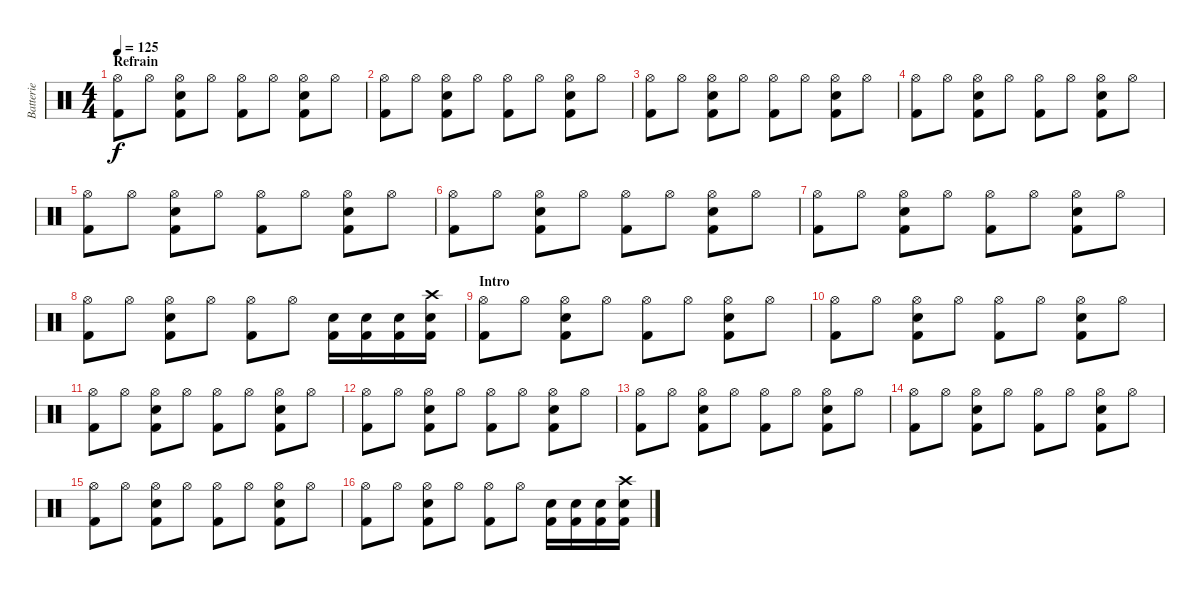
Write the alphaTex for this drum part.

\track ("Batterie" "Batterie") {instrument percussion}
\staff {score}
\articulation defaults
\ts (4 4)
\section ("" "Refrain")
\tempo 125
\clef neutral
\ks c
("Hi-Hat (open)" "Kick (hit) 2").8{dy f} "Hi-Hat (open)".8 ("Hi-Hat (open)" "Snare (hit) 2" "Kick (hit) 2").8 "Hi-Hat (open)".8 ("Hi-Hat (open)" "Kick (hit) 2").8 "Hi-Hat (open)".8 ("Hi-Hat (open)" "Snare (hit) 2" "Kick (hit) 2").8 "Hi-Hat (open)".8 |
("Hi-Hat (open)" "Kick (hit) 2").8 "Hi-Hat (open)".8 ("Hi-Hat (open)" "Snare (hit) 2" "Kick (hit) 2").8 "Hi-Hat (open)".8 ("Hi-Hat (open)" "Kick (hit) 2").8 "Hi-Hat (open)".8 ("Hi-Hat (open)" "Snare (hit) 2" "Kick (hit) 2").8 "Hi-Hat (open)".8 |
("Hi-Hat (open)" "Kick (hit) 2").8 "Hi-Hat (open)".8 ("Hi-Hat (open)" "Snare (hit) 2" "Kick (hit) 2").8 "Hi-Hat (open)".8 ("Hi-Hat (open)" "Kick (hit) 2").8 "Hi-Hat (open)".8 ("Hi-Hat (open)" "Snare (hit) 2" "Kick (hit) 2").8 "Hi-Hat (open)".8 |
("Hi-Hat (open)" "Kick (hit) 2").8 "Hi-Hat (open)".8 ("Hi-Hat (open)" "Snare (hit) 2" "Kick (hit) 2").8 "Hi-Hat (open)".8 ("Hi-Hat (open)" "Kick (hit) 2").8 "Hi-Hat (open)".8 ("Hi-Hat (open)" "Snare (hit) 2" "Kick (hit) 2").8 "Hi-Hat (open)".8 |
("Hi-Hat (open)" "Kick (hit) 2").8 "Hi-Hat (open)".8 ("Hi-Hat (open)" "Snare (hit) 2" "Kick (hit) 2").8 "Hi-Hat (open)".8 ("Hi-Hat (open)" "Kick (hit) 2").8 "Hi-Hat (open)".8 ("Hi-Hat (open)" "Snare (hit) 2" "Kick (hit) 2").8 "Hi-Hat (open)".8 |
("Hi-Hat (open)" "Kick (hit) 2").8 "Hi-Hat (open)".8 ("Hi-Hat (open)" "Snare (hit) 2" "Kick (hit) 2").8 "Hi-Hat (open)".8 ("Hi-Hat (open)" "Kick (hit) 2").8 "Hi-Hat (open)".8 ("Hi-Hat (open)" "Snare (hit) 2" "Kick (hit) 2").8 "Hi-Hat (open)".8 |
("Hi-Hat (open)" "Kick (hit) 2").8 "Hi-Hat (open)".8 ("Hi-Hat (open)" "Snare (hit) 2" "Kick (hit) 2").8 "Hi-Hat (open)".8 ("Hi-Hat (open)" "Kick (hit) 2").8 "Hi-Hat (open)".8 ("Hi-Hat (open)" "Snare (hit) 2" "Kick (hit) 2").8 "Hi-Hat (open)".8 |
("Hi-Hat (open)" "Kick (hit) 2").8 "Hi-Hat (open)".8 ("Hi-Hat (open)" "Snare (hit) 2" "Kick (hit) 2").8 "Hi-Hat (open)".8 ("Hi-Hat (open)" "Kick (hit) 2").8 "Hi-Hat (open)".8 ("Snare (hit) 2" "Kick (hit) 2").16 ("Snare (hit) 2" "Kick (hit) 2").16 ("Snare (hit) 2" "Kick (hit) 2").16 ("Crash high (hit)" "Snare (hit) 2" "Kick (hit) 2").16 |
\section ("" "Intro")
("Hi-Hat (open)" "Kick (hit) 2").8 "Hi-Hat (open)".8 ("Hi-Hat (open)" "Snare (hit) 2" "Kick (hit) 2").8 "Hi-Hat (open)".8 ("Hi-Hat (open)" "Kick (hit) 2").8 "Hi-Hat (open)".8 ("Hi-Hat (open)" "Snare (hit) 2" "Kick (hit) 2").8 "Hi-Hat (open)".8 |
("Hi-Hat (open)" "Kick (hit) 2").8 "Hi-Hat (open)".8 ("Hi-Hat (open)" "Snare (hit) 2" "Kick (hit) 2").8 "Hi-Hat (open)".8 ("Hi-Hat (open)" "Kick (hit) 2").8 "Hi-Hat (open)".8 ("Hi-Hat (open)" "Snare (hit) 2" "Kick (hit) 2").8 "Hi-Hat (open)".8 |
("Hi-Hat (open)" "Kick (hit) 2").8 "Hi-Hat (open)".8 ("Hi-Hat (open)" "Snare (hit) 2" "Kick (hit) 2").8 "Hi-Hat (open)".8 ("Hi-Hat (open)" "Kick (hit) 2").8 "Hi-Hat (open)".8 ("Hi-Hat (open)" "Snare (hit) 2" "Kick (hit) 2").8 "Hi-Hat (open)".8 |
("Hi-Hat (open)" "Kick (hit) 2").8 "Hi-Hat (open)".8 ("Hi-Hat (open)" "Snare (hit) 2" "Kick (hit) 2").8 "Hi-Hat (open)".8 ("Hi-Hat (open)" "Kick (hit) 2").8 "Hi-Hat (open)".8 ("Hi-Hat (open)" "Snare (hit) 2" "Kick (hit) 2").8 "Hi-Hat (open)".8 |
("Hi-Hat (open)" "Kick (hit) 2").8 "Hi-Hat (open)".8 ("Hi-Hat (open)" "Snare (hit) 2" "Kick (hit) 2").8 "Hi-Hat (open)".8 ("Hi-Hat (open)" "Kick (hit) 2").8 "Hi-Hat (open)".8 ("Hi-Hat (open)" "Snare (hit) 2" "Kick (hit) 2").8 "Hi-Hat (open)".8 |
("Hi-Hat (open)" "Kick (hit) 2").8 "Hi-Hat (open)".8 ("Hi-Hat (open)" "Snare (hit) 2" "Kick (hit) 2").8 "Hi-Hat (open)".8 ("Hi-Hat (open)" "Kick (hit) 2").8 "Hi-Hat (open)".8 ("Hi-Hat (open)" "Snare (hit) 2" "Kick (hit) 2").8 "Hi-Hat (open)".8 |
("Hi-Hat (open)" "Kick (hit) 2").8 "Hi-Hat (open)".8 ("Hi-Hat (open)" "Snare (hit) 2" "Kick (hit) 2").8 "Hi-Hat (open)".8 ("Hi-Hat (open)" "Kick (hit) 2").8 "Hi-Hat (open)".8 ("Hi-Hat (open)" "Snare (hit) 2" "Kick (hit) 2").8 "Hi-Hat (open)".8 |
("Hi-Hat (open)" "Kick (hit) 2").8 "Hi-Hat (open)".8 ("Hi-Hat (open)" "Snare (hit) 2" "Kick (hit) 2").8 "Hi-Hat (open)".8 ("Hi-Hat (open)" "Kick (hit) 2").8 "Hi-Hat (open)".8 ("Snare (hit) 2" "Kick (hit) 2").16 ("Snare (hit) 2" "Kick (hit) 2").16 ("Snare (hit) 2" "Kick (hit) 2").16 ("Crash high (hit)" "Snare (hit) 2" "Kick (hit) 2").16
